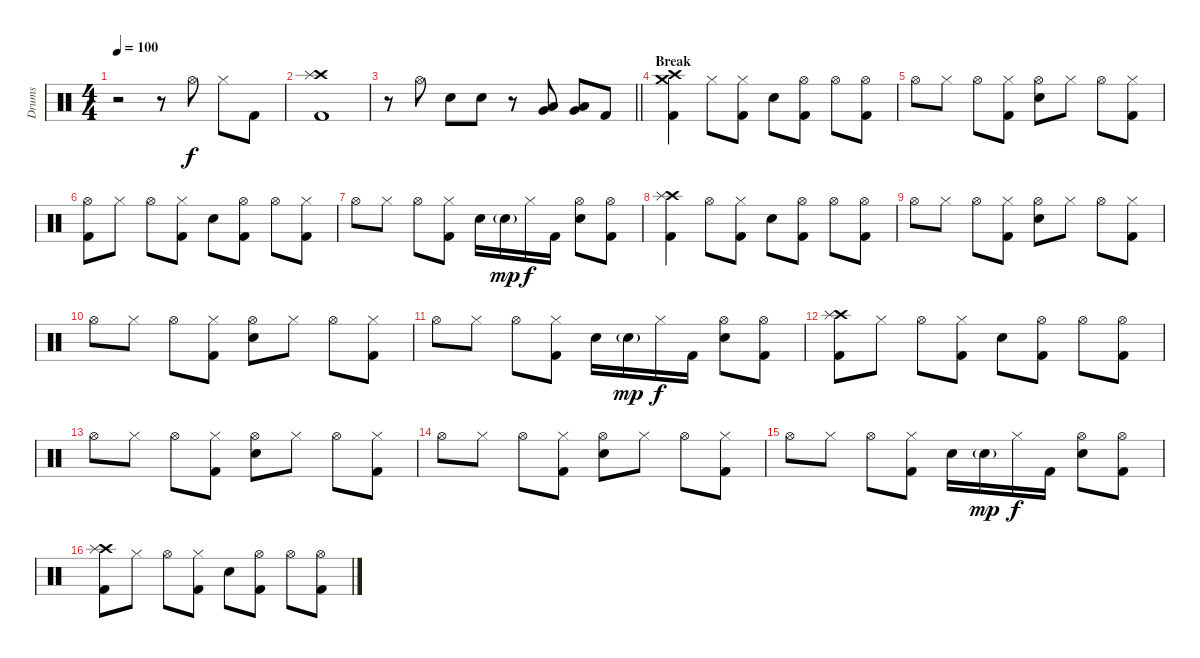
\track ("Drums" "Drums") {instrument percussion}
\staff {score}
\articulation defaults
\ts (4 4)
\tempo 100
\clef neutral
\ks c
r.2{dy f} r.8 "Hi-Hat (open)".8 "Hi-Hat (closed)".8 "Kick (hit) 2".8 |
("Kick (hit) 2" "Crash high (hit)" "Splash (hit)").1 |
\barLineRight lightlight
r.8 "Hi-Hat (open)".8 "Snare (hit) 2".8 "Snare (hit) 2".8 r.8 ("Low Floor Tom (hit)" "Very Low Tom (hit)").8 ("Low Floor Tom (hit)" "Very Low Tom (hit)").8 "Kick (hit) 2".8 |
\section ("" "Break")
("Crash high (hit)" "Kick (hit) 2" "Crash medium (hit)").4 "Hi-Hat (closed)".8 ("Hi-Hat (closed)" "Kick (hit) 2").8 "Snare (hit) 2".8 ("Hi-Hat (open)" "Kick (hit) 2").8 "Hi-Hat (open)".8 ("Hi-Hat (open)" "Kick (hit) 2").8 |
"Hi-Hat (open)".8 "Hi-Hat (closed)".8 "Hi-Hat (open)".8 ("Hi-Hat (closed)" "Kick (hit) 2").8 ("Hi-Hat (open)" "Snare (hit) 2").8 "Hi-Hat (closed)".8 "Hi-Hat (open)".8 ("Hi-Hat (closed)" "Kick (hit) 2").8 |
("Hi-Hat (open)" "Kick (hit) 2").8 "Hi-Hat (closed)".8 "Hi-Hat (open)".8 ("Hi-Hat (closed)" "Kick (hit) 2").8 "Snare (hit) 2".8 ("Hi-Hat (open)" "Kick (hit) 2").8 "Hi-Hat (open)".8 ("Hi-Hat (closed)" "Kick (hit) 2").8 |
"Hi-Hat (open)".8 "Hi-Hat (closed)".8 "Hi-Hat (open)".8 ("Hi-Hat (closed)" "Kick (hit) 2").8 "Snare (hit) 2".16 "Snare (hit) 2"{g}.16{dy mp} "Hi-Hat (closed)".16{dy f} "Kick (hit) 2".16 ("Hi-Hat (open)" "Snare (hit) 2").8 ("Hi-Hat (open)" "Kick (hit) 2").8 |
("Crash high (hit)" "Kick (hit) 2" "Splash (hit)").4 "Hi-Hat (open)".8 ("Hi-Hat (closed)" "Kick (hit) 2").8 "Snare (hit) 2".8 ("Hi-Hat (open)" "Kick (hit) 2").8 "Hi-Hat (open)".8 ("Hi-Hat (open)" "Kick (hit) 2").8 |
"Hi-Hat (open)".8 "Hi-Hat (closed)".8 "Hi-Hat (open)".8 ("Hi-Hat (closed)" "Kick (hit) 2").8 ("Hi-Hat (open)" "Snare (hit) 2").8 "Hi-Hat (closed)".8 "Hi-Hat (open)".8 ("Hi-Hat (closed)" "Kick (hit) 2").8 |
"Hi-Hat (open)".8 "Hi-Hat (closed)".8 "Hi-Hat (open)".8 ("Hi-Hat (closed)" "Kick (hit) 2").8 ("Hi-Hat (open)" "Snare (hit) 2").8 "Hi-Hat (closed)".8 "Hi-Hat (open)".8 ("Hi-Hat (closed)" "Kick (hit) 2").8 |
"Hi-Hat (open)".8 "Hi-Hat (closed)".8 "Hi-Hat (open)".8 ("Hi-Hat (closed)" "Kick (hit) 2").8 "Snare (hit) 2".16 "Snare (hit) 2"{g}.16{dy mp} "Hi-Hat (closed)".16{dy f} "Kick (hit) 2".16 ("Hi-Hat (open)" "Snare (hit) 2").8 ("Hi-Hat (open)" "Kick (hit) 2").8 |
("Crash high (hit)" "Kick (hit) 2" "Splash (hit)").8 "Hi-Hat (closed)".8 "Hi-Hat (open)".8 ("Hi-Hat (closed)" "Kick (hit) 2").8 "Snare (hit) 2".8 ("Hi-Hat (open)" "Kick (hit) 2").8 "Hi-Hat (open)".8 ("Hi-Hat (open)" "Kick (hit) 2").8 |
"Hi-Hat (open)".8 "Hi-Hat (closed)".8 "Hi-Hat (open)".8 ("Hi-Hat (closed)" "Kick (hit) 2").8 ("Hi-Hat (open)" "Snare (hit) 2").8 "Hi-Hat (closed)".8 "Hi-Hat (open)".8 ("Hi-Hat (closed)" "Kick (hit) 2").8 |
"Hi-Hat (open)".8 "Hi-Hat (closed)".8 "Hi-Hat (open)".8 ("Hi-Hat (closed)" "Kick (hit) 2").8 ("Hi-Hat (open)" "Snare (hit) 2").8 "Hi-Hat (closed)".8 "Hi-Hat (open)".8 ("Hi-Hat (closed)" "Kick (hit) 2").8 |
"Hi-Hat (open)".8 "Hi-Hat (closed)".8 "Hi-Hat (open)".8 ("Hi-Hat (closed)" "Kick (hit) 2").8 "Snare (hit) 2".16 "Snare (hit) 2"{g}.16{dy mp} "Hi-Hat (closed)".16{dy f} "Kick (hit) 2".16 ("Hi-Hat (open)" "Snare (hit) 2").8 ("Hi-Hat (open)" "Kick (hit) 2").8 |
("Crash high (hit)" "Kick (hit) 2" "Splash (hit)").8 "Hi-Hat (closed)".8 "Hi-Hat (open)".8 ("Hi-Hat (closed)" "Kick (hit) 2").8 "Snare (hit) 2".8 ("Hi-Hat (open)" "Kick (hit) 2").8 "Hi-Hat (open)".8 ("Hi-Hat (open)" "Kick (hit) 2").8
